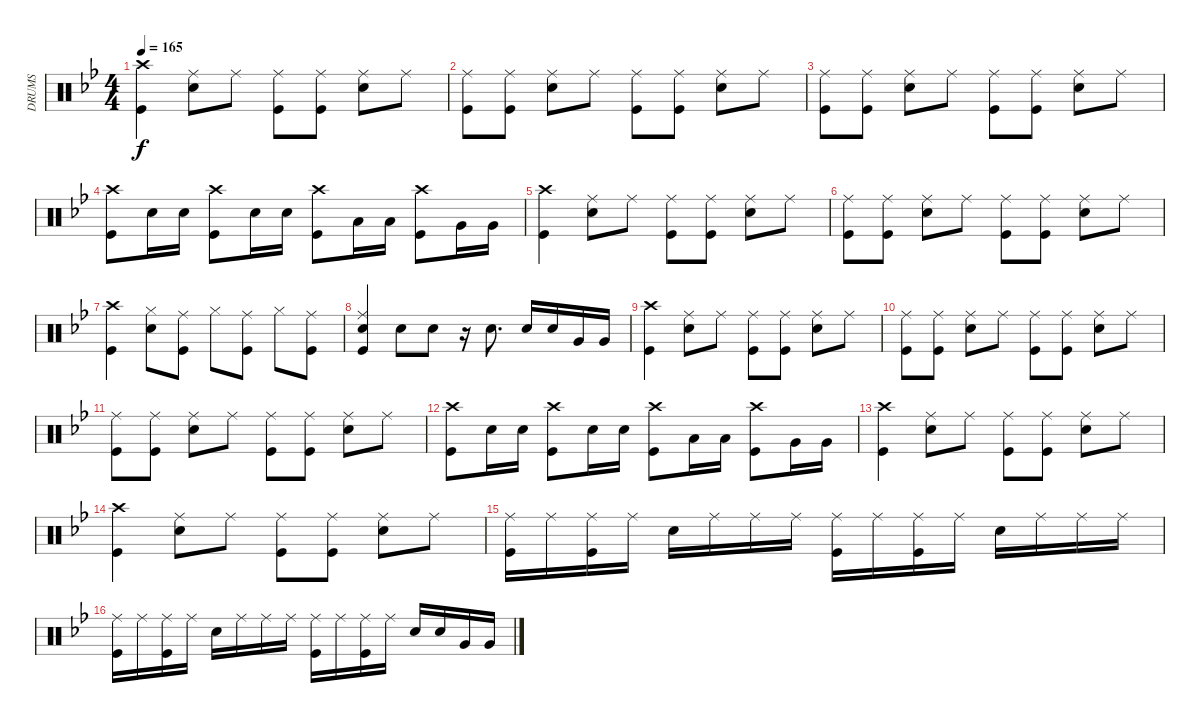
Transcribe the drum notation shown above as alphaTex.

\track ("DRUMS" "DRUMS") {instrument percussion}
\staff {score}
\articulation defaults
\ts (4 4)
\tempo 165
\clef neutral
\ks bb
("Crash high (hit)" "Kick (hit)").4{dy f} ("Ride (middle)" "Electric Snare (hit)").8 "Ride (middle)".8 ("Ride (middle)" "Kick (hit)").8 ("Ride (middle)" "Kick (hit)").8 ("Ride (middle)" "Electric Snare (hit)").8 "Ride (middle)".8 |
("Ride (middle)" "Kick (hit)").8 ("Ride (middle)" "Kick (hit)").8 ("Ride (middle)" "Electric Snare (hit)").8 "Ride (middle)".8 ("Ride (middle)" "Kick (hit)").8 ("Ride (middle)" "Kick (hit)").8 ("Ride (middle)" "Electric Snare (hit)").8 "Ride (middle)".8 |
("Ride (middle)" "Kick (hit)").8 ("Ride (middle)" "Kick (hit)").8 ("Ride (middle)" "Electric Snare (hit)").8 "Ride (middle)".8 ("Ride (middle)" "Kick (hit)").8 ("Ride (middle)" "Kick (hit)").8 ("Ride (middle)" "Electric Snare (hit)").8 "Ride (middle)".8 |
("Crash high (hit)" "Kick (hit)").8 "Electric Snare (hit)".16 "Electric Snare (hit)".16 ("Crash high (hit)" "Kick (hit)").8 "Electric Snare (hit)".16 "Electric Snare (hit)".16 ("Crash high (hit)" "Kick (hit)").8 "Low Tom (hit)".16 "Low Tom (hit)".16 ("Crash high (hit)" "Kick (hit)").8 "Very Low Tom (hit)".16 "Very Low Tom (hit)".16 |
("Crash high (hit)" "Kick (hit)").4 ("Ride (middle)" "Electric Snare (hit)").8 "Ride (middle)".8 ("Ride (middle)" "Kick (hit)").8 ("Ride (middle)" "Kick (hit)").8 ("Ride (middle)" "Electric Snare (hit)").8 "Ride (middle)".8 |
("Ride (middle)" "Kick (hit)").8 ("Ride (middle)" "Kick (hit)").8 ("Ride (middle)" "Electric Snare (hit)").8 "Ride (middle)".8 ("Ride (middle)" "Kick (hit)").8 ("Ride (middle)" "Kick (hit)").8 ("Ride (middle)" "Electric Snare (hit)").8 "Ride (middle)".8 |
("Crash high (hit)" "Kick (hit)").4 ("Hi-Hat (closed)" "Electric Snare (hit)").8 ("Ride (middle)" "Kick (hit)").8 "Hi-Hat (closed)".8 ("Ride (middle)" "Kick (hit)").8 "Hi-Hat (closed)".8 ("Ride (middle)" "Kick (hit)").8 |
("Ride (middle)" "Electric Snare (hit)" "Kick (hit)").4 "Electric Snare (hit)".8 "Electric Snare (hit)".8 r.16 "Electric Snare (hit)".8{d} "Electric Snare (hit)".16 "Electric Snare (hit)".16 "Very Low Tom (hit)".16 "Very Low Tom (hit)".16 |
("Crash high (hit)" "Kick (hit)").4 ("Ride (middle)" "Electric Snare (hit)").8 "Ride (middle)".8 ("Ride (middle)" "Kick (hit)").8 ("Ride (middle)" "Kick (hit)").8 ("Ride (middle)" "Electric Snare (hit)").8 "Ride (middle)".8 |
("Ride (middle)" "Kick (hit)").8 ("Ride (middle)" "Kick (hit)").8 ("Ride (middle)" "Electric Snare (hit)").8 "Ride (middle)".8 ("Ride (middle)" "Kick (hit)").8 ("Ride (middle)" "Kick (hit)").8 ("Ride (middle)" "Electric Snare (hit)").8 "Ride (middle)".8 |
("Ride (middle)" "Kick (hit)").8 ("Ride (middle)" "Kick (hit)").8 ("Ride (middle)" "Electric Snare (hit)").8 "Ride (middle)".8 ("Ride (middle)" "Kick (hit)").8 ("Ride (middle)" "Kick (hit)").8 ("Ride (middle)" "Electric Snare (hit)").8 "Ride (middle)".8 |
("Crash high (hit)" "Kick (hit)").8 "Electric Snare (hit)".16 "Electric Snare (hit)".16 ("Crash high (hit)" "Kick (hit)").8 "Electric Snare (hit)".16 "Electric Snare (hit)".16 ("Crash high (hit)" "Kick (hit)").8 "Low Tom (hit)".16 "Low Tom (hit)".16 ("Crash high (hit)" "Kick (hit)").8 "Very Low Tom (hit)".16 "Very Low Tom (hit)".16 |
("Crash high (hit)" "Kick (hit)").4 ("Ride (middle)" "Electric Snare (hit)").8 "Ride (middle)".8 ("Ride (middle)" "Kick (hit)").8 ("Ride (middle)" "Kick (hit)").8 ("Ride (middle)" "Electric Snare (hit)").8 "Ride (middle)".8 |
("Crash high (hit)" "Kick (hit)").4 ("Ride (middle)" "Electric Snare (hit)").8 "Ride (middle)".8 ("Ride (middle)" "Kick (hit)").8 ("Ride (middle)" "Kick (hit)").8 ("Ride (middle)" "Electric Snare (hit)").8 "Ride (middle)".8 |
("Ride (middle)" "Kick (hit)").16 "Ride (middle)".16 ("Ride (middle)" "Kick (hit)").16 "Ride (middle)".16 "Electric Snare (hit)".16 "Ride (middle)".16 "Ride (middle)".16 "Ride (middle)".16 ("Ride (middle)" "Kick (hit)").16 "Ride (middle)".16 ("Ride (middle)" "Kick (hit)").16 "Ride (middle)".16 "Electric Snare (hit)".16 "Ride (middle)".16 "Ride (middle)".16 "Ride (middle)".16 |
("Ride (middle)" "Kick (hit)").16 "Ride (middle)".16 ("Ride (middle)" "Kick (hit)").16 "Ride (middle)".16 "Electric Snare (hit)".16 "Ride (middle)".16 "Ride (middle)".16 "Ride (middle)".16 ("Ride (middle)" "Kick (hit)").16 "Ride (middle)".16 ("Ride (middle)" "Kick (hit)").16 "Ride (middle)".16 "Electric Snare (hit)".16 "Electric Snare (hit)".16 "Very Low Tom (hit)".16 "Very Low Tom (hit)".16
